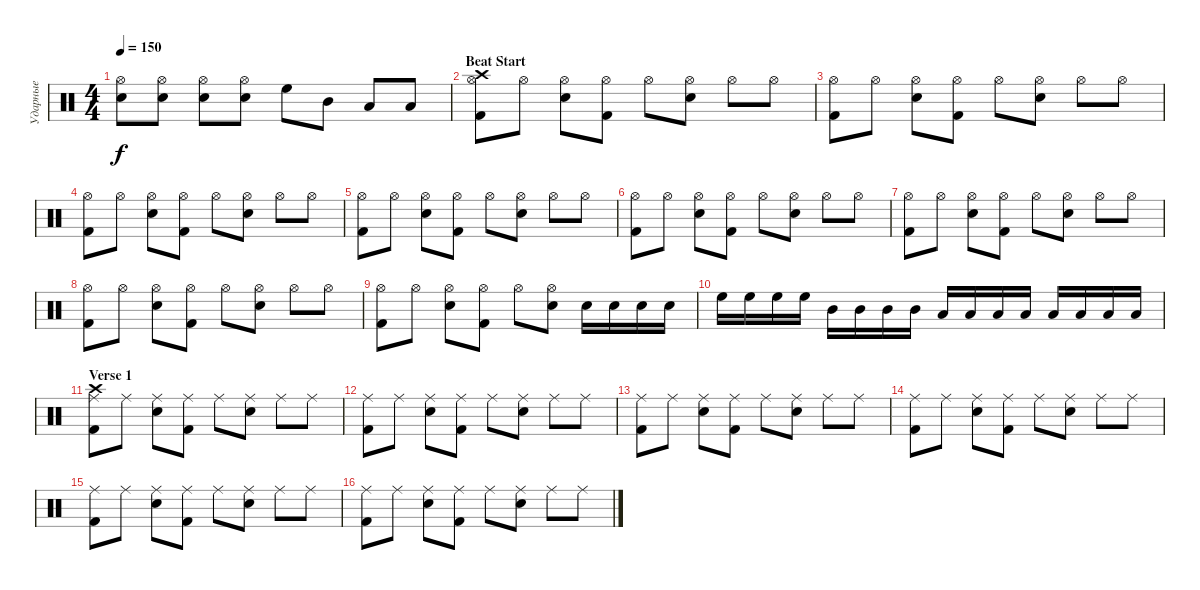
\track ("Ударные" "Ударные") {instrument percussion}
\staff {score}
\articulation defaults
\ts (4 4)
\tempo 150
\clef neutral
\ks c
("Hi-Hat (open)" "Snare (hit) 2").8{dy f} ("Hi-Hat (open)" "Snare (hit) 2").8 ("Hi-Hat (open)" "Snare (hit) 2").8 ("Hi-Hat (open)" "Snare (hit) 2").8 "High Floor Tom (hit)".8 "Mid Tom (hit)".8 "Low Tom (hit)".8 "Low Floor Tom (hit)".8 |
\section ("" "Beat Start")
("Hi-Hat (open)" "Crash high (hit)" "Kick (hit) 2").8 "Hi-Hat (open)".8 ("Hi-Hat (open)" "Snare (hit) 2").8 ("Hi-Hat (open)" "Kick (hit) 2").8 "Hi-Hat (open)".8 ("Hi-Hat (open)" "Snare (hit) 2").8 "Hi-Hat (open)".8 "Hi-Hat (open)".8 |
("Hi-Hat (open)" "Kick (hit) 2").8 "Hi-Hat (open)".8 ("Hi-Hat (open)" "Snare (hit) 2").8 ("Hi-Hat (open)" "Kick (hit) 2").8 "Hi-Hat (open)".8 ("Hi-Hat (open)" "Snare (hit) 2").8 "Hi-Hat (open)".8 "Hi-Hat (open)".8 |
("Hi-Hat (open)" "Kick (hit) 2").8 "Hi-Hat (open)".8 ("Hi-Hat (open)" "Snare (hit) 2").8 ("Hi-Hat (open)" "Kick (hit) 2").8 "Hi-Hat (open)".8 ("Hi-Hat (open)" "Snare (hit) 2").8 "Hi-Hat (open)".8 "Hi-Hat (open)".8 |
("Hi-Hat (open)" "Kick (hit) 2").8 "Hi-Hat (open)".8 ("Hi-Hat (open)" "Snare (hit) 2").8 ("Hi-Hat (open)" "Kick (hit) 2").8 "Hi-Hat (open)".8 ("Hi-Hat (open)" "Snare (hit) 2").8 "Hi-Hat (open)".8 "Hi-Hat (open)".8 |
("Hi-Hat (open)" "Kick (hit) 2").8 "Hi-Hat (open)".8 ("Hi-Hat (open)" "Snare (hit) 2").8 ("Hi-Hat (open)" "Kick (hit) 2").8 "Hi-Hat (open)".8 ("Hi-Hat (open)" "Snare (hit) 2").8 "Hi-Hat (open)".8 "Hi-Hat (open)".8 |
("Hi-Hat (open)" "Kick (hit) 2").8 "Hi-Hat (open)".8 ("Hi-Hat (open)" "Snare (hit) 2").8 ("Hi-Hat (open)" "Kick (hit) 2").8 "Hi-Hat (open)".8 ("Hi-Hat (open)" "Snare (hit) 2").8 "Hi-Hat (open)".8 "Hi-Hat (open)".8 |
("Hi-Hat (open)" "Kick (hit) 2").8 "Hi-Hat (open)".8 ("Hi-Hat (open)" "Snare (hit) 2").8 ("Hi-Hat (open)" "Kick (hit) 2").8 "Hi-Hat (open)".8 ("Hi-Hat (open)" "Snare (hit) 2").8 "Hi-Hat (open)".8 "Hi-Hat (open)".8 |
("Hi-Hat (open)" "Kick (hit) 2").8 "Hi-Hat (open)".8 ("Hi-Hat (open)" "Snare (hit) 2").8 ("Hi-Hat (open)" "Kick (hit) 2").8 "Hi-Hat (open)".8 ("Hi-Hat (open)" "Snare (hit) 2").8 "Snare (hit) 2".16 "Snare (hit) 2".16 "Snare (hit) 2".16 "Snare (hit) 2".16 |
"High Floor Tom (hit)".16 "High Floor Tom (hit)".16 "High Floor Tom (hit)".16 "High Floor Tom (hit)".16 "Mid Tom (hit)".16 "Mid Tom (hit)".16 "Mid Tom (hit)".16 "Mid Tom (hit)".16 "Low Tom (hit)".16 "Low Tom (hit)".16 "Low Tom (hit)".16 "Low Tom (hit)".16 "Low Floor Tom (hit)".16 "Low Floor Tom (hit)".16 "Low Floor Tom (hit)".16 "Low Floor Tom (hit)".16 |
\section ("" "Verse 1")
("Ride (middle)" "Crash high (hit)" "Kick (hit) 2").8 "Ride (middle)".8 ("Ride (middle)" "Snare (hit) 2").8 ("Ride (middle)" "Kick (hit) 2").8 "Ride (middle)".8 ("Ride (middle)" "Snare (hit) 2").8 "Ride (middle)".8 "Ride (middle)".8 |
("Ride (middle)" "Kick (hit) 2").8 "Ride (middle)".8 ("Ride (middle)" "Snare (hit) 2").8 ("Ride (middle)" "Kick (hit) 2").8 "Ride (middle)".8 ("Ride (middle)" "Snare (hit) 2").8 "Ride (middle)".8 "Ride (middle)".8 |
("Ride (middle)" "Kick (hit) 2").8 "Ride (middle)".8 ("Ride (middle)" "Snare (hit) 2").8 ("Ride (middle)" "Kick (hit) 2").8 "Ride (middle)".8 ("Ride (middle)" "Snare (hit) 2").8 "Ride (middle)".8 "Ride (middle)".8 |
("Ride (middle)" "Kick (hit) 2").8 "Ride (middle)".8 ("Ride (middle)" "Snare (hit) 2").8 ("Ride (middle)" "Kick (hit) 2").8 "Ride (middle)".8 ("Ride (middle)" "Snare (hit) 2").8 "Ride (middle)".8 "Ride (middle)".8 |
("Ride (middle)" "Kick (hit) 2").8 "Ride (middle)".8 ("Ride (middle)" "Snare (hit) 2").8 ("Ride (middle)" "Kick (hit) 2").8 "Ride (middle)".8 ("Ride (middle)" "Snare (hit) 2").8 "Ride (middle)".8 "Ride (middle)".8 |
("Ride (middle)" "Kick (hit) 2").8 "Ride (middle)".8 ("Ride (middle)" "Snare (hit) 2").8 ("Ride (middle)" "Kick (hit) 2").8 "Ride (middle)".8 ("Ride (middle)" "Snare (hit) 2").8 "Ride (middle)".8 "Ride (middle)".8
